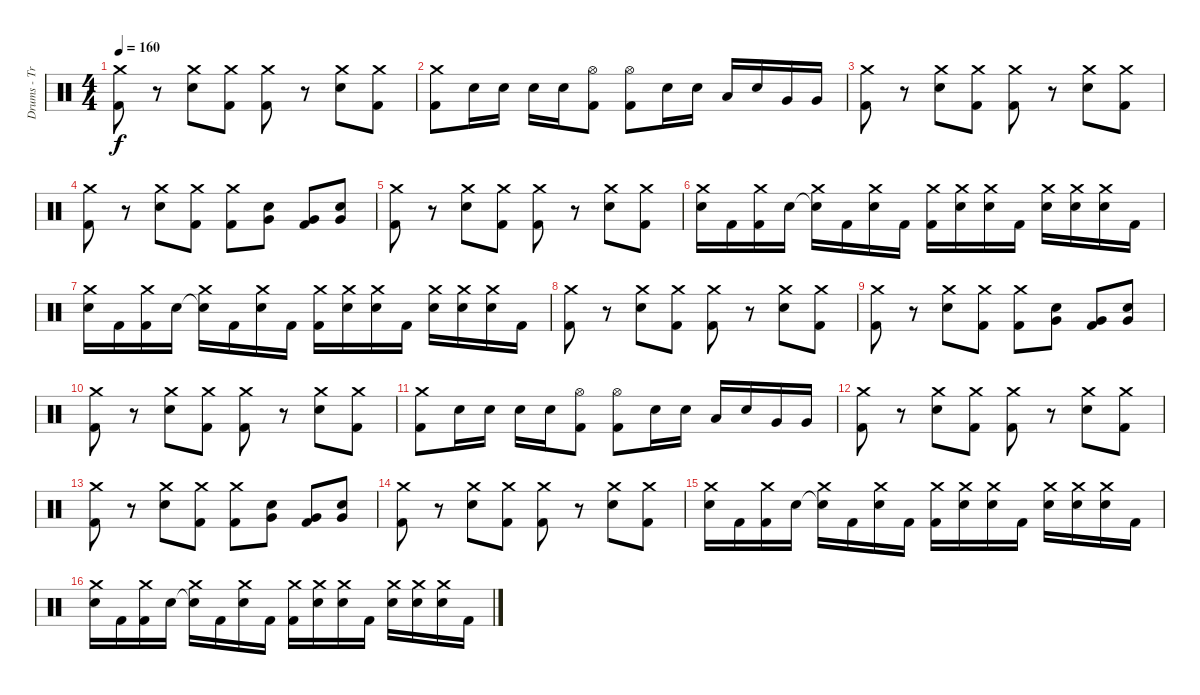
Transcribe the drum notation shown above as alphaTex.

\track ("Drums - Travis Barker" "Drums - Tr") {instrument percussion}
\staff {score}
\articulation defaults
\ts (4 4)
\tempo 160
\clef neutral
\ks c
("Kick (hit) 2" "Crash medium (hit)").8{dy f} r.8 ("Snare (hit) 2" "Crash medium (hit)").8 ("Kick (hit) 2" "Crash medium (hit)").8 ("Kick (hit) 2" "Crash medium (hit)").8 r.8 ("Snare (hit) 2" "Crash medium (hit)").8 ("Kick (hit) 2" "Crash medium (hit)").8 |
("Kick (hit) 2" "Crash medium (hit)").8 "Snare (hit) 2".16 "Snare (hit) 2".16 "Snare (hit) 2".16 "Snare (hit) 2".16 ("Hi-Hat (open)" "Kick (hit) 2").8 ("Hi-Hat (open)" "Kick (hit) 2").8 "Snare (hit) 2".16 "Snare (hit) 2".16 "Low Tom (hit)".16 "Snare (hit) 2".16 "Very Low Tom (hit)".16 "Very Low Tom (hit)".16 |
("Kick (hit) 2" "Crash medium (hit)").8 r.8 ("Snare (hit) 2" "Crash medium (hit)").8 ("Kick (hit) 2" "Crash medium (hit)").8 ("Kick (hit) 2" "Crash medium (hit)").8 r.8 ("Snare (hit) 2" "Crash medium (hit)").8 ("Kick (hit) 2" "Crash medium (hit)").8 |
("Kick (hit) 2" "Crash medium (hit)").8 r.8 ("Snare (hit) 2" "Crash medium (hit)").8 ("Kick (hit) 2" "Crash medium (hit)").8 ("Kick (hit) 2" "Crash medium (hit)").8 ("Snare (hit) 2" "Very Low Tom (hit)").8 ("Kick (hit) 2" "Very Low Tom (hit)").8 ("Snare (hit) 2" "Very Low Tom (hit)").8 |
("Kick (hit) 2" "Crash medium (hit)").8 r.8 ("Snare (hit) 2" "Crash medium (hit)").8 ("Kick (hit) 2" "Crash medium (hit)").8 ("Kick (hit) 2" "Crash medium (hit)").8 r.8 ("Snare (hit) 2" "Crash medium (hit)").8 ("Kick (hit) 2" "Crash medium (hit)").8 |
("Snare (hit) 2" "Crash medium (hit)").16 "Kick (hit) 2".16 ("Kick (hit) 2" "Crash medium (hit)").16 "Snare (hit) 2".16 ("Snare (hit)"{t} "Crash medium (hit)").16 "Kick (hit) 2".16 ("Snare (hit) 2" "Crash medium (hit)").16 "Kick (hit) 2".16 ("Kick (hit) 2" "Crash medium (hit)").16 ("Snare (hit) 2" "Crash medium (hit)").16 ("Snare (hit) 2" "Crash medium (hit)").16 "Kick (hit) 2".16 ("Snare (hit) 2" "Crash medium (hit)").16 ("Snare (hit) 2" "Crash medium (hit)").16 ("Snare (hit) 2" "Crash medium (hit)").16 "Kick (hit) 2".16 |
("Snare (hit) 2" "Crash medium (hit)").16 "Kick (hit) 2".16 ("Kick (hit) 2" "Crash medium (hit)").16 "Snare (hit) 2".16 ("Snare (hit)"{t} "Crash medium (hit)").16 "Kick (hit) 2".16 ("Snare (hit) 2" "Crash medium (hit)").16 "Kick (hit) 2".16 ("Kick (hit) 2" "Crash medium (hit)").16 ("Snare (hit) 2" "Crash medium (hit)").16 ("Snare (hit) 2" "Crash medium (hit)").16 "Kick (hit) 2".16 ("Snare (hit) 2" "Crash medium (hit)").16 ("Snare (hit) 2" "Crash medium (hit)").16 ("Snare (hit) 2" "Crash medium (hit)").16 "Kick (hit) 2".16 |
("Kick (hit) 2" "Crash medium (hit)").8 r.8 ("Snare (hit) 2" "Crash medium (hit)").8 ("Kick (hit) 2" "Crash medium (hit)").8 ("Kick (hit) 2" "Crash medium (hit)").8 r.8 ("Snare (hit) 2" "Crash medium (hit)").8 ("Kick (hit) 2" "Crash medium (hit)").8 |
("Kick (hit) 2" "Crash medium (hit)").8 r.8 ("Snare (hit) 2" "Crash medium (hit)").8 ("Kick (hit) 2" "Crash medium (hit)").8 ("Kick (hit) 2" "Crash medium (hit)").8 ("Snare (hit) 2" "Very Low Tom (hit)").8 ("Kick (hit) 2" "Very Low Tom (hit)").8 ("Snare (hit) 2" "Very Low Tom (hit)").8 |
("Kick (hit) 2" "Crash medium (hit)").8 r.8 ("Snare (hit) 2" "Crash medium (hit)").8 ("Kick (hit) 2" "Crash medium (hit)").8 ("Kick (hit) 2" "Crash medium (hit)").8 r.8 ("Snare (hit) 2" "Crash medium (hit)").8 ("Kick (hit) 2" "Crash medium (hit)").8 |
("Kick (hit) 2" "Crash medium (hit)").8 "Snare (hit) 2".16 "Snare (hit) 2".16 "Snare (hit) 2".16 "Snare (hit) 2".16 ("Hi-Hat (open)" "Kick (hit) 2").8 ("Hi-Hat (open)" "Kick (hit) 2").8 "Snare (hit) 2".16 "Snare (hit) 2".16 "Low Tom (hit)".16 "Snare (hit) 2".16 "Very Low Tom (hit)".16 "Very Low Tom (hit)".16 |
("Kick (hit) 2" "Crash medium (hit)").8 r.8 ("Snare (hit) 2" "Crash medium (hit)").8 ("Kick (hit) 2" "Crash medium (hit)").8 ("Kick (hit) 2" "Crash medium (hit)").8 r.8 ("Snare (hit) 2" "Crash medium (hit)").8 ("Kick (hit) 2" "Crash medium (hit)").8 |
("Kick (hit) 2" "Crash medium (hit)").8 r.8 ("Snare (hit) 2" "Crash medium (hit)").8 ("Kick (hit) 2" "Crash medium (hit)").8 ("Kick (hit) 2" "Crash medium (hit)").8 ("Snare (hit) 2" "Very Low Tom (hit)").8 ("Kick (hit) 2" "Very Low Tom (hit)").8 ("Snare (hit) 2" "Very Low Tom (hit)").8 |
("Kick (hit) 2" "Crash medium (hit)").8 r.8 ("Snare (hit) 2" "Crash medium (hit)").8 ("Kick (hit) 2" "Crash medium (hit)").8 ("Kick (hit) 2" "Crash medium (hit)").8 r.8 ("Snare (hit) 2" "Crash medium (hit)").8 ("Kick (hit) 2" "Crash medium (hit)").8 |
("Snare (hit) 2" "Crash medium (hit)").16 "Kick (hit) 2".16 ("Kick (hit) 2" "Crash medium (hit)").16 "Snare (hit) 2".16 ("Snare (hit)"{t} "Crash medium (hit)").16 "Kick (hit) 2".16 ("Snare (hit) 2" "Crash medium (hit)").16 "Kick (hit) 2".16 ("Kick (hit) 2" "Crash medium (hit)").16 ("Snare (hit) 2" "Crash medium (hit)").16 ("Snare (hit) 2" "Crash medium (hit)").16 "Kick (hit) 2".16 ("Snare (hit) 2" "Crash medium (hit)").16 ("Snare (hit) 2" "Crash medium (hit)").16 ("Snare (hit) 2" "Crash medium (hit)").16 "Kick (hit) 2".16 |
("Snare (hit) 2" "Crash medium (hit)").16 "Kick (hit) 2".16 ("Kick (hit) 2" "Crash medium (hit)").16 "Snare (hit) 2".16 ("Snare (hit)"{t} "Crash medium (hit)").16 "Kick (hit) 2".16 ("Snare (hit) 2" "Crash medium (hit)").16 "Kick (hit) 2".16 ("Kick (hit) 2" "Crash medium (hit)").16 ("Snare (hit) 2" "Crash medium (hit)").16 ("Snare (hit) 2" "Crash medium (hit)").16 "Kick (hit) 2".16 ("Snare (hit) 2" "Crash medium (hit)").16 ("Snare (hit) 2" "Crash medium (hit)").16 ("Snare (hit) 2" "Crash medium (hit)").16 "Kick (hit) 2".16
